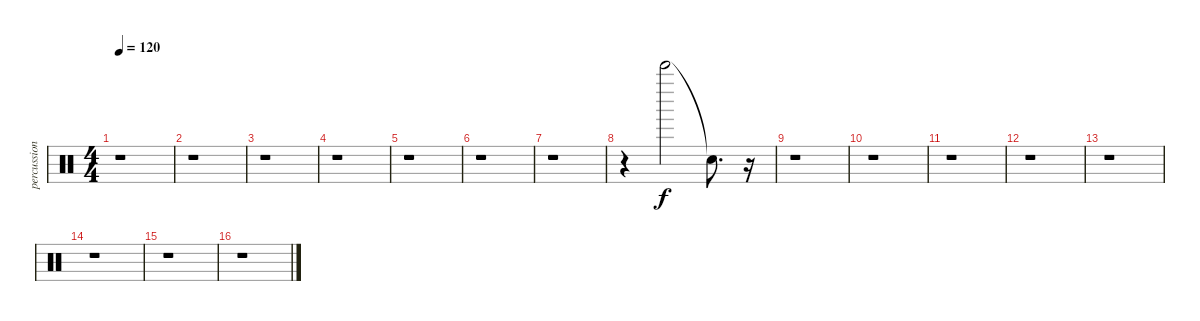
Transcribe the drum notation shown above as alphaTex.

\track ("percussion" "percussion") {instrument percussion}
\staff {score}
\articulation defaults
\ts (4 4)
\tempo 120
\clef neutral
\ks c
r.1{dy f} |
r.1 |
r.1 |
r.1 |
r.1 |
r.1 |
r.1 |
r.4 "Bell Tree (hit)".2 "Snare (hit)"{t}.8{d} r.16 |
r.1 |
r.1 |
r.1 |
r.1 |
r.1 |
r.1 |
r.1 |
r.1
